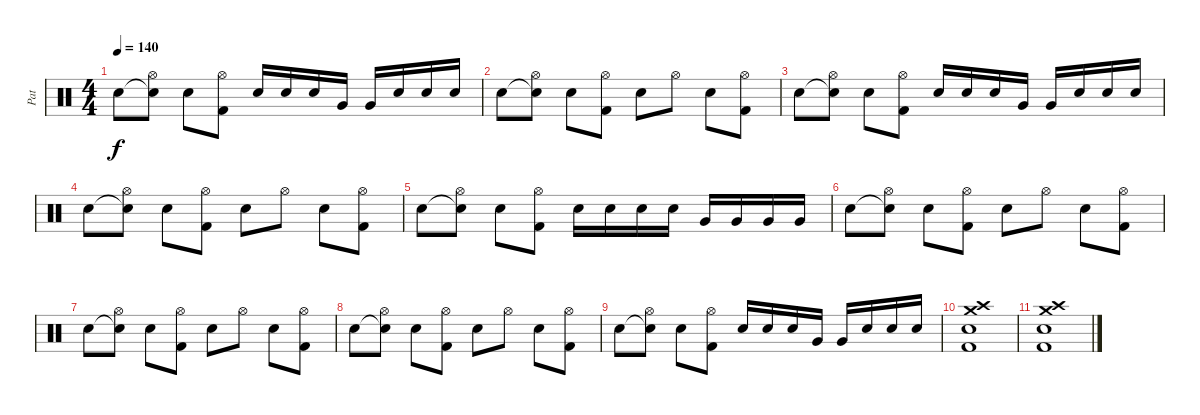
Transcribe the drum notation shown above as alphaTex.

\track ("Pat" "Pat") {instrument percussion}
\staff {score}
\articulation defaults
\ts (4 4)
\tempo 140
\clef neutral
\ks c "Snare (hit) 2".8{dy f}
("Snare (hit)"{t} "Hi-Hat (open)").8 "Snare (hit) 2".8 ("Kick (hit) 2" "Hi-Hat (open)").8 "Snare (hit) 2".16 "Snare (hit) 2".16 "Snare (hit) 2".16 "Very Low Tom (hit)".16 "Very Low Tom (hit)".16 "Snare (hit) 2".16 "Snare (hit) 2".16 "Snare (hit) 2".16 |
"Snare (hit) 2".8 ("Snare (hit)"{t} "Hi-Hat (open)").8 "Snare (hit) 2".8 ("Kick (hit) 2" "Hi-Hat (open)").8 "Snare (hit) 2".8 "Hi-Hat (open)".8 "Snare (hit) 2".8 ("Kick (hit) 2" "Hi-Hat (open)").8 |
"Snare (hit) 2".8 ("Snare (hit)"{t} "Hi-Hat (open)").8 "Snare (hit) 2".8 ("Kick (hit) 2" "Hi-Hat (open)").8 "Snare (hit) 2".16 "Snare (hit) 2".16 "Snare (hit) 2".16 "Very Low Tom (hit)".16 "Very Low Tom (hit)".16 "Snare (hit) 2".16 "Snare (hit) 2".16 "Snare (hit) 2".16 |
"Snare (hit) 2".8 ("Snare (hit)"{t} "Hi-Hat (open)").8 "Snare (hit) 2".8 ("Kick (hit) 2" "Hi-Hat (open)").8 "Snare (hit) 2".8 "Hi-Hat (open)".8 "Snare (hit) 2".8 ("Kick (hit) 2" "Hi-Hat (open)").8 |
"Snare (hit) 2".8 ("Snare (hit)"{t} "Hi-Hat (open)").8 "Snare (hit) 2".8 ("Kick (hit) 2" "Hi-Hat (open)").8 "Snare (hit) 2".16 "Snare (hit) 2".16 "Snare (hit) 2".16 "Snare (hit) 2".16 "Very Low Tom (hit)".16 "Very Low Tom (hit)".16 "Very Low Tom (hit)".16 "Very Low Tom (hit)".16 |
"Snare (hit) 2".8 ("Snare (hit)"{t} "Hi-Hat (open)").8 "Snare (hit) 2".8 ("Kick (hit) 2" "Hi-Hat (open)").8 "Snare (hit) 2".8 "Hi-Hat (open)".8 "Snare (hit) 2".8 ("Kick (hit) 2" "Hi-Hat (open)").8 |
"Snare (hit) 2".8 ("Snare (hit)"{t} "Hi-Hat (open)").8 "Snare (hit) 2".8 ("Kick (hit) 2" "Hi-Hat (open)").8 "Snare (hit) 2".8 "Hi-Hat (open)".8 "Snare (hit) 2".8 ("Kick (hit) 2" "Hi-Hat (open)").8 |
"Snare (hit) 2".8 ("Snare (hit)"{t} "Hi-Hat (open)").8 "Snare (hit) 2".8 ("Kick (hit) 2" "Hi-Hat (open)").8 "Snare (hit) 2".8 "Hi-Hat (open)".8 "Snare (hit) 2".8 ("Kick (hit) 2" "Hi-Hat (open)").8 |
"Snare (hit) 2".8 ("Snare (hit)"{t} "Hi-Hat (open)").8 "Snare (hit) 2".8 ("Kick (hit) 2" "Hi-Hat (open)").8 "Snare (hit) 2".16 "Snare (hit) 2".16 "Snare (hit) 2".16 "Very Low Tom (hit)".16 "Very Low Tom (hit)".16 "Snare (hit) 2".16 "Snare (hit) 2".16 "Snare (hit) 2".16 |
("Crash medium (hit)" "Crash high (hit)" "Electric Snare (hit)" "Kick (hit) 2").1 |
("Crash medium (hit)" "Crash high (hit)" "Electric Snare (hit)" "Kick (hit) 2").1
